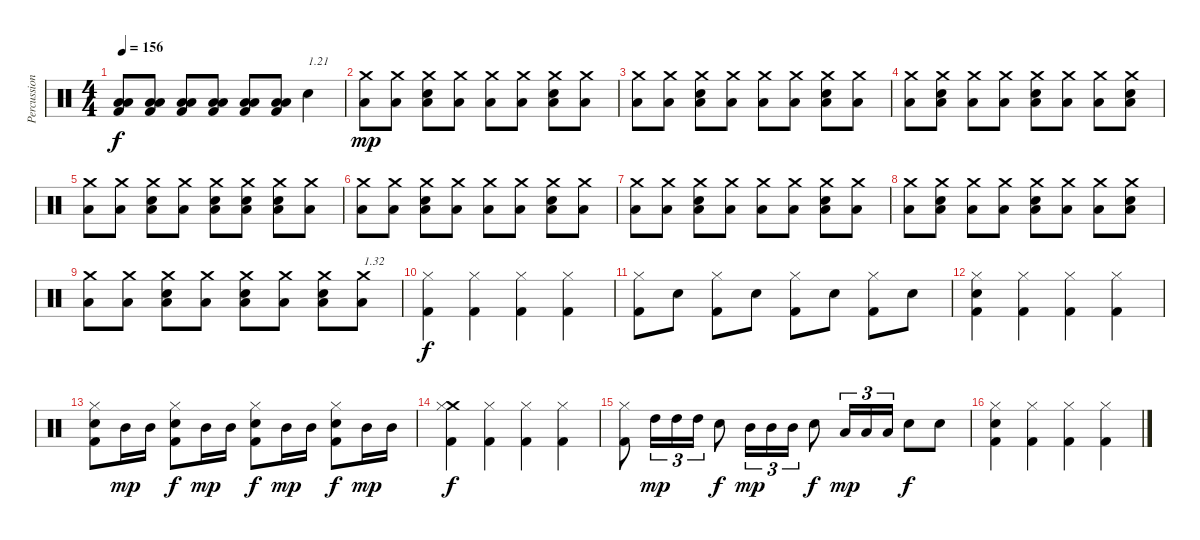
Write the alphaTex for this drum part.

\track ("Percussions" "Percussion") {instrument percussion}
\staff {score}
\articulation defaults
\ts (4 4)
\tempo 156
\clef neutral
\ks c
("Kick (hit) 2" "Low Floor Tom (hit)" "Low Tom (hit)").8{dy f} ("Kick (hit) 2" "Low Floor Tom (hit)" "Low Tom (hit)").8 ("Kick (hit) 2" "Low Floor Tom (hit)" "Low Tom (hit)").8 ("Kick (hit) 2" "Low Floor Tom (hit)" "Low Tom (hit)").8 ("Kick (hit) 2" "Low Floor Tom (hit)" "Low Tom (hit)").8 ("Kick (hit) 2" "Low Floor Tom (hit)" "Low Tom (hit)").8 "Electric Snare (hit)".4{txt "1.21"} |
("Low Floor Tom (hit)" "Crash medium (hit)").8{dy mp} ("Low Floor Tom (hit)" "Crash medium (hit)").8 ("Low Floor Tom (hit)" "Electric Snare (hit)" "Crash medium (hit)").8 ("Low Floor Tom (hit)" "Crash medium (hit)").8 ("Low Floor Tom (hit)" "Crash medium (hit)").8 ("Low Floor Tom (hit)" "Crash medium (hit)").8 ("Low Floor Tom (hit)" "Electric Snare (hit)" "Crash medium (hit)").8 ("Low Floor Tom (hit)" "Crash medium (hit)").8 |
("Low Floor Tom (hit)" "Crash medium (hit)").8 ("Low Floor Tom (hit)" "Crash medium (hit)").8 ("Low Floor Tom (hit)" "Electric Snare (hit)" "Crash medium (hit)").8 ("Low Floor Tom (hit)" "Crash medium (hit)").8 ("Low Floor Tom (hit)" "Crash medium (hit)").8 ("Low Floor Tom (hit)" "Crash medium (hit)").8 ("Low Floor Tom (hit)" "Electric Snare (hit)" "Crash medium (hit)").8 ("Low Floor Tom (hit)" "Crash medium (hit)").8 |
("Low Floor Tom (hit)" "Crash medium (hit)").8 ("Low Floor Tom (hit)" "Electric Snare (hit)" "Crash medium (hit)").8 ("Low Floor Tom (hit)" "Crash medium (hit)").8 ("Low Floor Tom (hit)" "Crash medium (hit)").8 ("Low Floor Tom (hit)" "Electric Snare (hit)" "Crash medium (hit)").8 ("Low Floor Tom (hit)" "Crash medium (hit)").8 ("Low Floor Tom (hit)" "Crash medium (hit)").8 ("Low Floor Tom (hit)" "Electric Snare (hit)" "Crash medium (hit)").8 |
("Low Floor Tom (hit)" "Crash medium (hit)").8 ("Low Floor Tom (hit)" "Crash medium (hit)").8 ("Low Floor Tom (hit)" "Electric Snare (hit)" "Crash medium (hit)").8 ("Low Floor Tom (hit)" "Crash medium (hit)").8 ("Low Floor Tom (hit)" "Electric Snare (hit)" "Crash medium (hit)").8 ("Low Floor Tom (hit)" "Electric Snare (hit)" "Crash medium (hit)").8 ("Low Floor Tom (hit)" "Electric Snare (hit)" "Crash medium (hit)").8 ("Low Floor Tom (hit)" "Crash medium (hit)").8 |
("Low Floor Tom (hit)" "Crash medium (hit)").8 ("Low Floor Tom (hit)" "Crash medium (hit)").8 ("Low Floor Tom (hit)" "Electric Snare (hit)" "Crash medium (hit)").8 ("Low Floor Tom (hit)" "Crash medium (hit)").8 ("Low Floor Tom (hit)" "Crash medium (hit)").8 ("Low Floor Tom (hit)" "Crash medium (hit)").8 ("Low Floor Tom (hit)" "Electric Snare (hit)" "Crash medium (hit)").8 ("Low Floor Tom (hit)" "Crash medium (hit)").8 |
("Low Floor Tom (hit)" "Crash medium (hit)").8 ("Low Floor Tom (hit)" "Crash medium (hit)").8 ("Low Floor Tom (hit)" "Electric Snare (hit)" "Crash medium (hit)").8 ("Low Floor Tom (hit)" "Crash medium (hit)").8 ("Low Floor Tom (hit)" "Crash medium (hit)").8 ("Low Floor Tom (hit)" "Crash medium (hit)").8 ("Low Floor Tom (hit)" "Electric Snare (hit)" "Crash medium (hit)").8 ("Low Floor Tom (hit)" "Crash medium (hit)").8 |
("Low Floor Tom (hit)" "Crash medium (hit)").8 ("Low Floor Tom (hit)" "Electric Snare (hit)" "Crash medium (hit)").8 ("Low Floor Tom (hit)" "Crash medium (hit)").8 ("Low Floor Tom (hit)" "Crash medium (hit)").8 ("Low Floor Tom (hit)" "Electric Snare (hit)" "Crash medium (hit)").8 ("Low Floor Tom (hit)" "Crash medium (hit)").8 ("Low Floor Tom (hit)" "Crash medium (hit)").8 ("Low Floor Tom (hit)" "Electric Snare (hit)" "Crash medium (hit)").8 |
("Low Floor Tom (hit)" "Crash medium (hit)").8 ("Low Floor Tom (hit)" "Crash medium (hit)").8 ("Low Floor Tom (hit)" "Electric Snare (hit)" "Crash medium (hit)").8 ("Low Floor Tom (hit)" "Crash medium (hit)").8 ("Low Floor Tom (hit)" "Electric Snare (hit)" "Crash medium (hit)").8 ("Low Floor Tom (hit)" "Crash medium (hit)").8 ("Low Floor Tom (hit)" "Electric Snare (hit)" "Crash medium (hit)").8 ("Low Floor Tom (hit)" "Crash medium (hit)").8{txt "1.32"} |
("Kick (hit) 2" "Hi-Hat (closed)").4{dy f} ("Kick (hit) 2" "Hi-Hat (closed)").4 ("Kick (hit) 2" "Hi-Hat (closed)").4 ("Kick (hit) 2" "Hi-Hat (closed)").4 |
("Kick (hit) 2" "Hi-Hat (closed)").8 "Electric Snare (hit)".8 ("Kick (hit) 2" "Hi-Hat (closed)").8 "Electric Snare (hit)".8 ("Kick (hit) 2" "Hi-Hat (closed)").8 "Electric Snare (hit)".8 ("Kick (hit) 2" "Hi-Hat (closed)").8 "Electric Snare (hit)".8 |
("Kick (hit) 2" "Electric Snare (hit)" "Hi-Hat (closed)").4 ("Kick (hit) 2" "Hi-Hat (closed)").4 ("Kick (hit) 2" "Hi-Hat (closed)").4 ("Kick (hit) 2" "Hi-Hat (closed)").4 |
("Kick (hit) 2" "Electric Snare (hit)" "Hi-Hat (closed)").8 "Mid Tom (hit)".16{dy mp} "Mid Tom (hit)".16 ("Kick (hit) 2" "Electric Snare (hit)" "Hi-Hat (closed)").8{dy f} "Mid Tom (hit)".16{dy mp} "Mid Tom (hit)".16 ("Kick (hit) 2" "Electric Snare (hit)" "Hi-Hat (closed)").8{dy f} "Mid Tom (hit)".16{dy mp} "Mid Tom (hit)".16 ("Kick (hit) 2" "Electric Snare (hit)" "Hi-Hat (closed)").8{dy f} "Mid Tom (hit)".16{dy mp} "Mid Tom (hit)".16 |
("Kick (hit) 2" "Crash medium (hit)" "Hi-Hat (closed)").4{dy f} ("Kick (hit) 2" "Hi-Hat (closed)").4 ("Kick (hit) 2" "Hi-Hat (closed)").4 ("Kick (hit) 2" "Hi-Hat (closed)").4 |
("Kick (hit) 2" "Hi-Hat (closed)").8 "High Tom (hit)".16{tu (3 2) dy mp} "High Tom (hit)".16{tu (3 2)} "High Tom (hit)".16{tu (3 2)} "Snare (hit) 2".8{dy f} "Mid Tom (hit)".16{tu (3 2) dy mp} "Mid Tom (hit)".16{tu (3 2)} "Mid Tom (hit)".16{tu (3 2)} "Snare (hit) 2".8{dy f} "Low Tom (hit)".16{tu (3 2) dy mp} "Low Tom (hit)".16{tu (3 2)} "Low Tom (hit)".16{tu (3 2)} "Electric Snare (hit)".8{dy f} "Electric Snare (hit)".8 |
("Kick (hit) 2" "Electric Snare (hit)" "Hi-Hat (closed)").4 ("Kick (hit) 2" "Hi-Hat (closed)").4 ("Kick (hit) 2" "Hi-Hat (closed)").4 ("Kick (hit) 2" "Hi-Hat (closed)").4
